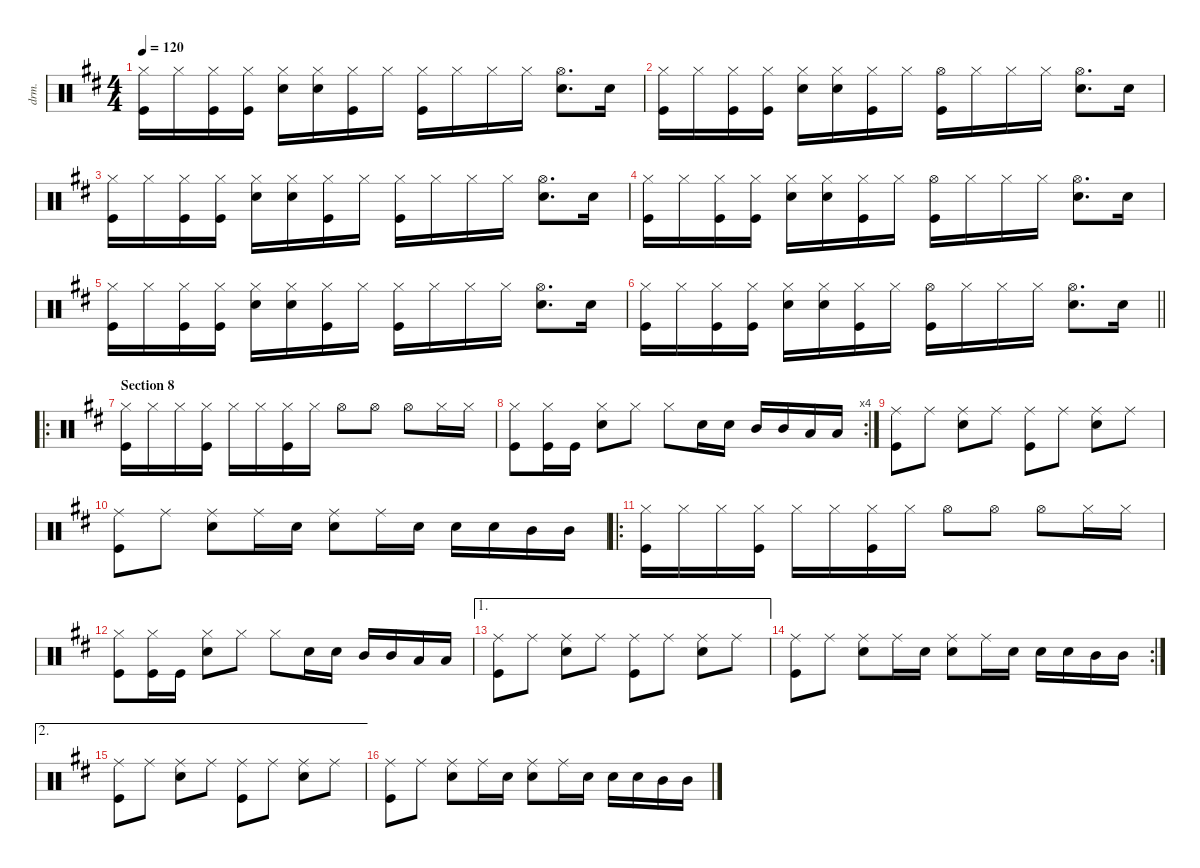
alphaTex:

\defaultSystemsLayout 4
\hideDynamics
\bracketExtendMode nobrackets
\otherSystemsTrackNameOrientation horizontal
\track ("Drums" "drm.") {instrument percussion}
\staff {score}
\articulation defaults
\ts (4 4)
\tempo 120
\clef neutral
\ks d
("Hi-Hat (closed)"{acc forcenatural} "Kick (hit)"{acc forcenatural}).16{dy f} "Hi-Hat (closed)"{acc forcenatural}.16 ("Hi-Hat (closed)"{acc forcenatural} "Kick (hit)"{acc forcenatural}).16 ("Hi-Hat (closed)"{acc forcenatural} "Kick (hit)"{acc forcenatural}).16 ("Hi-Hat (closed)"{acc forcenatural} "Snare (hit) 2"{acc forcenatural}).16 ("Hi-Hat (closed)"{acc forcenatural} "Snare (hit) 2"{acc forcenatural}).16 ("Hi-Hat (closed)"{acc forcenatural} "Kick (hit)"{acc forcenatural}).16 "Hi-Hat (closed)"{acc forcenatural}.16 ("Hi-Hat (closed)"{acc forcenatural} "Kick (hit)"{acc forcenatural}).16 "Hi-Hat (closed)"{acc forcenatural}.16 "Hi-Hat (closed)"{acc forcenatural}.16 "Hi-Hat (closed)"{acc forcenatural}.16 ("Hi-Hat (open)"{acc forcenatural} "Snare (hit) 2"{acc forcenatural}).8{d} "Snare (hit) 2"{acc forcenatural}.16 |
("Hi-Hat (closed)"{acc forcenatural} "Kick (hit)"{acc forcenatural}).16 "Hi-Hat (closed)"{acc forcenatural}.16 ("Hi-Hat (closed)"{acc forcenatural} "Kick (hit)"{acc forcenatural}).16 ("Hi-Hat (closed)"{acc forcenatural} "Kick (hit)"{acc forcenatural}).16 ("Hi-Hat (closed)"{acc forcenatural} "Snare (hit) 2"{acc forcenatural}).16 ("Hi-Hat (closed)"{acc forcenatural} "Snare (hit) 2"{acc forcenatural}).16 ("Hi-Hat (closed)"{acc forcenatural} "Kick (hit)"{acc forcenatural}).16 "Hi-Hat (closed)"{acc forcenatural}.16 ("Hi-Hat (open)"{acc forcenatural} "Kick (hit)"{acc forcenatural}).16 "Hi-Hat (closed)"{acc forcenatural}.16 "Hi-Hat (closed)"{acc forcenatural}.16 "Hi-Hat (closed)"{acc forcenatural}.16 ("Hi-Hat (open)"{acc forcenatural} "Snare (hit) 2"{acc forcenatural}).8{d} "Snare (hit) 2"{acc forcenatural}.16 |
("Hi-Hat (closed)"{acc forcenatural} "Kick (hit)"{acc forcenatural}).16 "Hi-Hat (closed)"{acc forcenatural}.16 ("Hi-Hat (closed)"{acc forcenatural} "Kick (hit)"{acc forcenatural}).16 ("Hi-Hat (closed)"{acc forcenatural} "Kick (hit)"{acc forcenatural}).16 ("Hi-Hat (closed)"{acc forcenatural} "Snare (hit) 2"{acc forcenatural}).16 ("Hi-Hat (closed)"{acc forcenatural} "Snare (hit) 2"{acc forcenatural}).16 ("Hi-Hat (closed)"{acc forcenatural} "Kick (hit)"{acc forcenatural}).16 "Hi-Hat (closed)"{acc forcenatural}.16 ("Hi-Hat (closed)"{acc forcenatural} "Kick (hit)"{acc forcenatural}).16 "Hi-Hat (closed)"{acc forcenatural}.16 "Hi-Hat (closed)"{acc forcenatural}.16 "Hi-Hat (closed)"{acc forcenatural}.16 ("Hi-Hat (open)"{acc forcenatural} "Snare (hit) 2"{acc forcenatural}).8{d} "Snare (hit) 2"{acc forcenatural}.16 |
("Hi-Hat (closed)"{acc forcenatural} "Kick (hit)"{acc forcenatural}).16 "Hi-Hat (closed)"{acc forcenatural}.16 ("Hi-Hat (closed)"{acc forcenatural} "Kick (hit)"{acc forcenatural}).16 ("Hi-Hat (closed)"{acc forcenatural} "Kick (hit)"{acc forcenatural}).16 ("Hi-Hat (closed)"{acc forcenatural} "Snare (hit) 2"{acc forcenatural}).16 ("Hi-Hat (closed)"{acc forcenatural} "Snare (hit) 2"{acc forcenatural}).16 ("Hi-Hat (closed)"{acc forcenatural} "Kick (hit)"{acc forcenatural}).16 "Hi-Hat (closed)"{acc forcenatural}.16 ("Hi-Hat (open)"{acc forcenatural} "Kick (hit)"{acc forcenatural}).16 "Hi-Hat (closed)"{acc forcenatural}.16 "Hi-Hat (closed)"{acc forcenatural}.16 "Hi-Hat (closed)"{acc forcenatural}.16 ("Hi-Hat (open)"{acc forcenatural} "Snare (hit) 2"{acc forcenatural}).8{d} "Snare (hit) 2"{acc forcenatural}.16 |
("Hi-Hat (closed)"{acc forcenatural} "Kick (hit)"{acc forcenatural}).16 "Hi-Hat (closed)"{acc forcenatural}.16 ("Hi-Hat (closed)"{acc forcenatural} "Kick (hit)"{acc forcenatural}).16 ("Hi-Hat (closed)"{acc forcenatural} "Kick (hit)"{acc forcenatural}).16 ("Hi-Hat (closed)"{acc forcenatural} "Snare (hit) 2"{acc forcenatural}).16 ("Hi-Hat (closed)"{acc forcenatural} "Snare (hit) 2"{acc forcenatural}).16 ("Hi-Hat (closed)"{acc forcenatural} "Kick (hit)"{acc forcenatural}).16 "Hi-Hat (closed)"{acc forcenatural}.16 ("Hi-Hat (closed)"{acc forcenatural} "Kick (hit)"{acc forcenatural}).16 "Hi-Hat (closed)"{acc forcenatural}.16 "Hi-Hat (closed)"{acc forcenatural}.16 "Hi-Hat (closed)"{acc forcenatural}.16 ("Hi-Hat (open)"{acc forcenatural} "Snare (hit) 2"{acc forcenatural}).8{d} "Snare (hit) 2"{acc forcenatural}.16 |
\barLineRight lightlight
("Hi-Hat (closed)"{acc forcenatural} "Kick (hit)"{acc forcenatural}).16 "Hi-Hat (closed)"{acc forcenatural}.16 ("Hi-Hat (closed)"{acc forcenatural} "Kick (hit)"{acc forcenatural}).16 ("Hi-Hat (closed)"{acc forcenatural} "Kick (hit)"{acc forcenatural}).16 ("Hi-Hat (closed)"{acc forcenatural} "Snare (hit) 2"{acc forcenatural}).16 ("Hi-Hat (closed)"{acc forcenatural} "Snare (hit) 2"{acc forcenatural}).16 ("Hi-Hat (closed)"{acc forcenatural} "Kick (hit)"{acc forcenatural}).16 "Hi-Hat (closed)"{acc forcenatural}.16 ("Hi-Hat (open)"{acc forcenatural} "Kick (hit)"{acc forcenatural}).16 "Hi-Hat (closed)"{acc forcenatural}.16 "Hi-Hat (closed)"{acc forcenatural}.16 "Hi-Hat (closed)"{acc forcenatural}.16 ("Hi-Hat (open)"{acc forcenatural} "Snare (hit) 2"{acc forcenatural}).8{d} "Snare (hit) 2"{acc forcenatural}.16 |
\ro
\section ("" "Section 8")
("Hi-Hat (closed)"{acc forcenatural} "Kick (hit)"{acc forcenatural}).16 "Hi-Hat (closed)"{acc forcenatural}.16 "Hi-Hat (closed)"{acc forcenatural}.16 ("Hi-Hat (closed)"{acc forcenatural} "Kick (hit)"{acc forcenatural}).16 "Hi-Hat (closed)"{acc forcenatural}.16 "Hi-Hat (closed)"{acc forcenatural}.16 ("Hi-Hat (closed)"{acc forcenatural} "Kick (hit)"{acc forcenatural}).16 "Hi-Hat (closed)"{acc forcenatural}.16 "Hi-Hat (open)"{acc forcenatural}.8 "Hi-Hat (open)"{acc forcenatural}.8 "Hi-Hat (open)"{acc forcenatural}.8 "Hi-Hat (closed)"{acc forcenatural}.16 "Hi-Hat (closed)"{acc forcenatural}.16 |
\rc 4
("Hi-Hat (closed)"{acc forcenatural} "Kick (hit)"{acc forcenatural}).8 ("Hi-Hat (closed)"{acc forcenatural} "Kick (hit)"{acc forcenatural}).16 "Kick (hit)"{acc forcenatural}.16 ("Hi-Hat (closed)"{acc forcenatural} "Snare (hit) 2"{acc forcenatural}).8 "Hi-Hat (closed)"{acc forcenatural}.8 "Hi-Hat (closed)"{acc forcenatural}.8 "Snare (hit) 2"{acc forcenatural}.16 "Snare (hit) 2"{acc forcenatural}.16 "Mid Tom (hit)"{acc forcenatural}.16 "Mid Tom (hit)"{acc forcenatural}.16 "Low Tom (hit)"{acc forcenatural}.16 "Low Tom (hit)"{acc forcenatural}.16 |
("Ride (middle)"{acc forcenatural} "Kick (hit)"{acc forcenatural}).8 "Ride (middle)"{acc forcenatural}.8 ("Ride (middle)"{acc forcenatural} "Snare (hit) 2"{acc forcenatural}).8 "Ride (middle)"{acc forcenatural}.8 ("Ride (middle)"{acc forcenatural} "Kick (hit)"{acc forcenatural}).8 "Ride (middle)"{acc forcenatural}.8 ("Ride (middle)"{acc forcenatural} "Snare (hit) 2"{acc forcenatural}).8 "Ride (middle)"{acc forcenatural}.8 |
("Ride (middle)"{acc forcenatural} "Kick (hit)"{acc forcenatural}).8 "Ride (middle)"{acc forcenatural}.8 ("Ride (middle)"{acc forcenatural} "Snare (hit) 2"{acc forcenatural}).8 "Ride (middle)"{acc forcenatural}.16 "Snare (hit) 2"{acc forcenatural}.16 ("Ride (middle)"{acc forcenatural} "Snare (hit) 2"{acc forcenatural}).8 "Ride (middle)"{acc forcenatural}.16 "Snare (hit) 2"{acc forcenatural}.16 "Snare (hit) 2"{acc forcenatural}.16 "Snare (hit) 2"{acc forcenatural}.16 "Mid Tom (hit)"{acc forcenatural}.16 "Mid Tom (hit)"{acc forcenatural}.16 |
\ro
("Hi-Hat (closed)"{acc forcenatural} "Kick (hit)"{acc forcenatural}).16 "Hi-Hat (closed)"{acc forcenatural}.16 "Hi-Hat (closed)"{acc forcenatural}.16 ("Hi-Hat (closed)"{acc forcenatural} "Kick (hit)"{acc forcenatural}).16 "Hi-Hat (closed)"{acc forcenatural}.16 "Hi-Hat (closed)"{acc forcenatural}.16 ("Hi-Hat (closed)"{acc forcenatural} "Kick (hit)"{acc forcenatural}).16 "Hi-Hat (closed)"{acc forcenatural}.16 "Hi-Hat (open)"{acc forcenatural}.8 "Hi-Hat (open)"{acc forcenatural}.8 "Hi-Hat (open)"{acc forcenatural}.8 "Hi-Hat (closed)"{acc forcenatural}.16 "Hi-Hat (closed)"{acc forcenatural}.16 |
("Hi-Hat (closed)"{acc forcenatural} "Kick (hit)"{acc forcenatural}).8 ("Hi-Hat (closed)"{acc forcenatural} "Kick (hit)"{acc forcenatural}).16 "Kick (hit)"{acc forcenatural}.16 ("Hi-Hat (closed)"{acc forcenatural} "Snare (hit) 2"{acc forcenatural}).8 "Hi-Hat (closed)"{acc forcenatural}.8 "Hi-Hat (closed)"{acc forcenatural}.8 "Snare (hit) 2"{acc forcenatural}.16 "Snare (hit) 2"{acc forcenatural}.16 "Mid Tom (hit)"{acc forcenatural}.16 "Mid Tom (hit)"{acc forcenatural}.16 "Low Tom (hit)"{acc forcenatural}.16 "Low Tom (hit)"{acc forcenatural}.16 |
\ae 1
("Ride (middle)"{acc forcenatural} "Kick (hit)"{acc forcenatural}).8 "Ride (middle)"{acc forcenatural}.8 ("Ride (middle)"{acc forcenatural} "Snare (hit) 2"{acc forcenatural}).8 "Ride (middle)"{acc forcenatural}.8 ("Ride (middle)"{acc forcenatural} "Kick (hit)"{acc forcenatural}).8 "Ride (middle)"{acc forcenatural}.8 ("Ride (middle)"{acc forcenatural} "Snare (hit) 2"{acc forcenatural}).8 "Ride (middle)"{acc forcenatural}.8 |
\rc 2
("Ride (middle)"{acc forcenatural} "Kick (hit)"{acc forcenatural}).8 "Ride (middle)"{acc forcenatural}.8 ("Ride (middle)"{acc forcenatural} "Snare (hit) 2"{acc forcenatural}).8 "Ride (middle)"{acc forcenatural}.16 "Snare (hit) 2"{acc forcenatural}.16 ("Ride (middle)"{acc forcenatural} "Snare (hit) 2"{acc forcenatural}).8 "Ride (middle)"{acc forcenatural}.16 "Snare (hit) 2"{acc forcenatural}.16 "Snare (hit) 2"{acc forcenatural}.16 "Snare (hit) 2"{acc forcenatural}.16 "Mid Tom (hit)"{acc forcenatural}.16 "Mid Tom (hit)"{acc forcenatural}.16 |
\ae 2
("Ride (middle)"{acc forcenatural} "Kick (hit)"{acc forcenatural}).8 "Ride (middle)"{acc forcenatural}.8 ("Ride (middle)"{acc forcenatural} "Snare (hit) 2"{acc forcenatural}).8 "Ride (middle)"{acc forcenatural}.8 ("Ride (middle)"{acc forcenatural} "Kick (hit)"{acc forcenatural}).8 "Ride (middle)"{acc forcenatural}.8 ("Ride (middle)"{acc forcenatural} "Snare (hit) 2"{acc forcenatural}).8 "Ride (middle)"{acc forcenatural}.8 |
("Ride (middle)"{acc forcenatural} "Kick (hit)"{acc forcenatural}).8 "Ride (middle)"{acc forcenatural}.8 ("Ride (middle)"{acc forcenatural} "Snare (hit) 2"{acc forcenatural}).8 "Ride (middle)"{acc forcenatural}.16 "Snare (hit) 2"{acc forcenatural}.16 ("Ride (middle)"{acc forcenatural} "Snare (hit) 2"{acc forcenatural}).8 "Ride (middle)"{acc forcenatural}.16 "Snare (hit) 2"{acc forcenatural}.16 "Snare (hit) 2"{acc forcenatural}.16 "Snare (hit) 2"{acc forcenatural}.16 "Mid Tom (hit)"{acc forcenatural}.16 "Mid Tom (hit)"{acc forcenatural}.16
